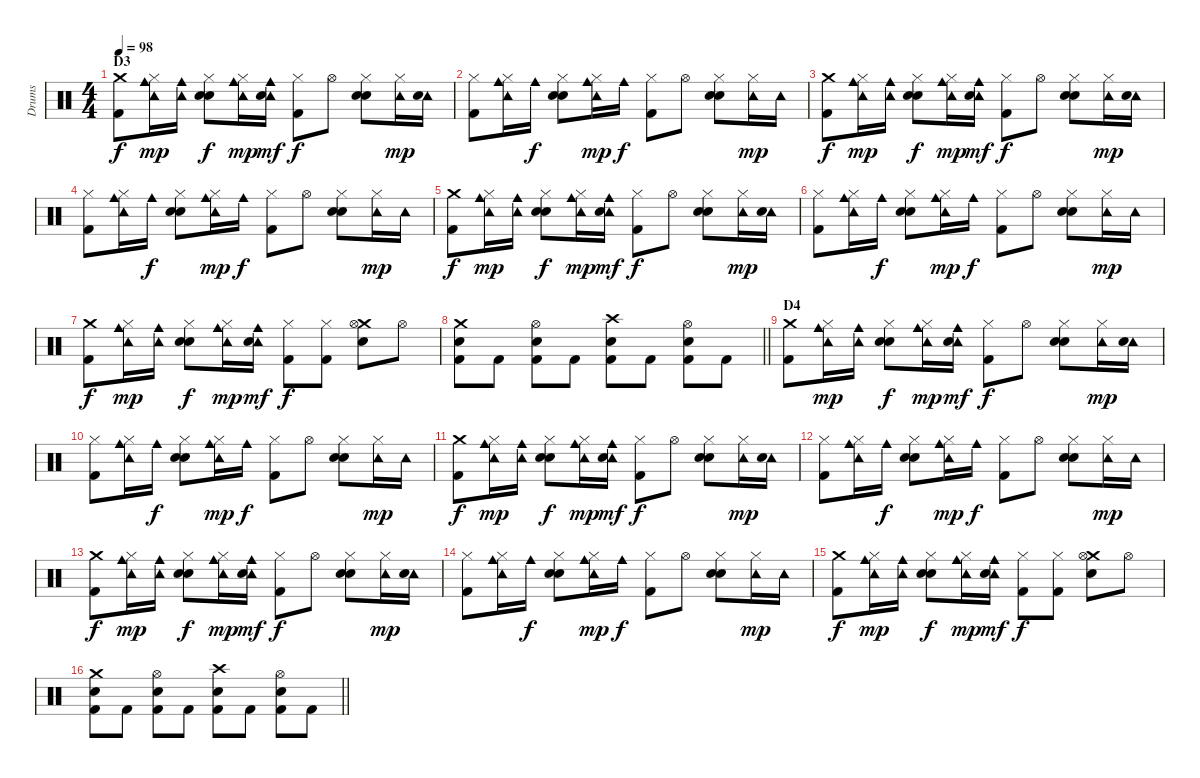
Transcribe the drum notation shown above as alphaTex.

\track ("Drums" "Drums") {instrument percussion}
\staff {score}
\articulation defaults
\ts (4 4)
\section ("" "D3")
\tempo 98
\clef neutral
\ks c
("Crash medium (hit)" "Kick (hit) 2").8{dy f} ("Cowbell medium (hit)" "Tambourine (hit)" "Hi-Hat (closed)").16{dy mp} ("Cowbell medium (hit)" "Tambourine (hit)").16 ("Hand Clap (hit)" "Hi-Hat (closed)" "Electric Snare (hit)").8{dy f} ("Cowbell medium (hit)" "Tambourine (hit)" "Hi-Hat (closed)").16{dy mp} ("Cowbell medium (hit)" "Tambourine (hit)" "Electric Snare (hit)").16{dy mf} ("Hi-Hat (closed)" "Kick (hit) 2").8{dy f} "Hi-Hat (open)".8 ("Hand Clap (hit)" "Hi-Hat (closed)" "Electric Snare (hit)").8 ("Tambourine (hit)" "Hi-Hat (closed)").16{dy mp} ("Tambourine (hit)" "Electric Snare (hit)").16 |
("Hi-Hat (closed)" "Kick (hit) 2").8 ("Cowbell medium (hit)" "Tambourine (hit)" "Hi-Hat (closed)").16 "Cowbell medium (hit)".16{dy f} ("Hand Clap (hit)" "Hi-Hat (closed)" "Electric Snare (hit)").8 ("Cowbell medium (hit)" "Tambourine (hit)" "Hi-Hat (closed)").16{dy mp} "Cowbell medium (hit)".16{dy f} ("Hi-Hat (closed)" "Kick (hit) 2").8 "Hi-Hat (open)".8 ("Hand Clap (hit)" "Hi-Hat (closed)" "Electric Snare (hit)").8 ("Tambourine (hit)" "Hi-Hat (closed)").16{dy mp} "Tambourine (hit)".16 |
("Crash medium (hit)" "Kick (hit) 2").8{dy f} ("Cowbell medium (hit)" "Tambourine (hit)" "Hi-Hat (closed)").16{dy mp} ("Cowbell medium (hit)" "Tambourine (hit)").16 ("Hand Clap (hit)" "Hi-Hat (closed)" "Electric Snare (hit)").8{dy f} ("Cowbell medium (hit)" "Tambourine (hit)" "Hi-Hat (closed)").16{dy mp} ("Cowbell medium (hit)" "Tambourine (hit)" "Electric Snare (hit)").16{dy mf} ("Hi-Hat (closed)" "Kick (hit) 2").8{dy f} "Hi-Hat (open)".8 ("Hand Clap (hit)" "Hi-Hat (closed)" "Electric Snare (hit)").8 ("Tambourine (hit)" "Hi-Hat (closed)").16{dy mp} ("Tambourine (hit)" "Electric Snare (hit)").16 |
("Hi-Hat (closed)" "Kick (hit) 2").8 ("Cowbell medium (hit)" "Tambourine (hit)" "Hi-Hat (closed)").16 "Cowbell medium (hit)".16{dy f} ("Hand Clap (hit)" "Hi-Hat (closed)" "Electric Snare (hit)").8 ("Cowbell medium (hit)" "Tambourine (hit)" "Hi-Hat (closed)").16{dy mp} "Cowbell medium (hit)".16{dy f} ("Hi-Hat (closed)" "Kick (hit) 2").8 "Hi-Hat (open)".8 ("Hand Clap (hit)" "Hi-Hat (closed)" "Electric Snare (hit)").8 ("Tambourine (hit)" "Hi-Hat (closed)").16{dy mp} "Tambourine (hit)".16 |
("Crash medium (hit)" "Kick (hit) 2").8{dy f} ("Cowbell medium (hit)" "Tambourine (hit)" "Hi-Hat (closed)").16{dy mp} ("Cowbell medium (hit)" "Tambourine (hit)").16 ("Hand Clap (hit)" "Hi-Hat (closed)" "Electric Snare (hit)").8{dy f} ("Cowbell medium (hit)" "Tambourine (hit)" "Hi-Hat (closed)").16{dy mp} ("Cowbell medium (hit)" "Tambourine (hit)" "Electric Snare (hit)").16{dy mf} ("Hi-Hat (closed)" "Kick (hit) 2").8{dy f} "Hi-Hat (open)".8 ("Hand Clap (hit)" "Hi-Hat (closed)" "Electric Snare (hit)").8 ("Tambourine (hit)" "Hi-Hat (closed)").16{dy mp} ("Tambourine (hit)" "Electric Snare (hit)").16 |
("Hi-Hat (closed)" "Kick (hit) 2").8 ("Cowbell medium (hit)" "Tambourine (hit)" "Hi-Hat (closed)").16 "Cowbell medium (hit)".16{dy f} ("Hand Clap (hit)" "Hi-Hat (closed)" "Electric Snare (hit)").8 ("Cowbell medium (hit)" "Tambourine (hit)" "Hi-Hat (closed)").16{dy mp} "Cowbell medium (hit)".16{dy f} ("Hi-Hat (closed)" "Kick (hit) 2").8 "Hi-Hat (open)".8 ("Hand Clap (hit)" "Hi-Hat (closed)" "Electric Snare (hit)").8 ("Tambourine (hit)" "Hi-Hat (closed)").16{dy mp} "Tambourine (hit)".16 |
("Crash medium (hit)" "Kick (hit) 2").8{dy f} ("Cowbell medium (hit)" "Tambourine (hit)" "Hi-Hat (closed)").16{dy mp} ("Cowbell medium (hit)" "Tambourine (hit)").16 ("Hand Clap (hit)" "Hi-Hat (closed)" "Electric Snare (hit)").8{dy f} ("Cowbell medium (hit)" "Tambourine (hit)" "Hi-Hat (closed)").16{dy mp} ("Cowbell medium (hit)" "Tambourine (hit)" "Electric Snare (hit)").16{dy mf} ("Hi-Hat (closed)" "Kick (hit) 2").8{dy f} ("Hi-Hat (closed)" "Kick (hit) 2").8 ("Crash medium (hit)" "Hi-Hat (open)" "Electric Snare (hit)").8 "Hi-Hat (open)".8 |
\barLineRight lightlight
("Crash medium (hit)" "Electric Snare (hit)" "Kick (hit) 2").8 "Kick (hit) 2".8 ("Hi-Hat (open)" "Electric Snare (hit)" "Kick (hit) 2").8 "Kick (hit) 2".8 ("Crash high (hit)" "Electric Snare (hit)" "Kick (hit) 2").8 "Kick (hit) 2".8 ("Hi-Hat (open)" "Electric Snare (hit)" "Kick (hit) 2").8 "Kick (hit) 2".8 |
\section ("" "D4")
("Crash medium (hit)" "Kick (hit) 2").8 ("Cowbell medium (hit)" "Tambourine (hit)" "Hi-Hat (closed)").16{dy mp} ("Cowbell medium (hit)" "Tambourine (hit)").16 ("Hand Clap (hit)" "Hi-Hat (closed)" "Electric Snare (hit)").8{dy f} ("Cowbell medium (hit)" "Tambourine (hit)" "Hi-Hat (closed)").16{dy mp} ("Cowbell medium (hit)" "Tambourine (hit)" "Electric Snare (hit)").16{dy mf} ("Hi-Hat (closed)" "Kick (hit) 2").8{dy f} "Hi-Hat (open)".8 ("Hand Clap (hit)" "Hi-Hat (closed)" "Electric Snare (hit)").8 ("Tambourine (hit)" "Hi-Hat (closed)").16{dy mp} ("Tambourine (hit)" "Electric Snare (hit)").16 |
("Hi-Hat (closed)" "Kick (hit) 2").8 ("Cowbell medium (hit)" "Tambourine (hit)" "Hi-Hat (closed)").16 "Cowbell medium (hit)".16{dy f} ("Hand Clap (hit)" "Hi-Hat (closed)" "Electric Snare (hit)").8 ("Cowbell medium (hit)" "Tambourine (hit)" "Hi-Hat (closed)").16{dy mp} "Cowbell medium (hit)".16{dy f} ("Hi-Hat (closed)" "Kick (hit) 2").8 "Hi-Hat (open)".8 ("Hand Clap (hit)" "Hi-Hat (closed)" "Electric Snare (hit)").8 ("Tambourine (hit)" "Hi-Hat (closed)").16{dy mp} "Tambourine (hit)".16 |
("Crash medium (hit)" "Kick (hit) 2").8{dy f} ("Cowbell medium (hit)" "Tambourine (hit)" "Hi-Hat (closed)").16{dy mp} ("Cowbell medium (hit)" "Tambourine (hit)").16 ("Hand Clap (hit)" "Hi-Hat (closed)" "Electric Snare (hit)").8{dy f} ("Cowbell medium (hit)" "Tambourine (hit)" "Hi-Hat (closed)").16{dy mp} ("Cowbell medium (hit)" "Tambourine (hit)" "Electric Snare (hit)").16{dy mf} ("Hi-Hat (closed)" "Kick (hit) 2").8{dy f} "Hi-Hat (open)".8 ("Hand Clap (hit)" "Hi-Hat (closed)" "Electric Snare (hit)").8 ("Tambourine (hit)" "Hi-Hat (closed)").16{dy mp} ("Tambourine (hit)" "Electric Snare (hit)").16 |
("Hi-Hat (closed)" "Kick (hit) 2").8 ("Cowbell medium (hit)" "Tambourine (hit)" "Hi-Hat (closed)").16 "Cowbell medium (hit)".16{dy f} ("Hand Clap (hit)" "Hi-Hat (closed)" "Electric Snare (hit)").8 ("Cowbell medium (hit)" "Tambourine (hit)" "Hi-Hat (closed)").16{dy mp} "Cowbell medium (hit)".16{dy f} ("Hi-Hat (closed)" "Kick (hit) 2").8 "Hi-Hat (open)".8 ("Hand Clap (hit)" "Hi-Hat (closed)" "Electric Snare (hit)").8 ("Tambourine (hit)" "Hi-Hat (closed)").16{dy mp} "Tambourine (hit)".16 |
("Crash medium (hit)" "Kick (hit) 2").8{dy f} ("Cowbell medium (hit)" "Tambourine (hit)" "Hi-Hat (closed)").16{dy mp} ("Cowbell medium (hit)" "Tambourine (hit)").16 ("Hand Clap (hit)" "Hi-Hat (closed)" "Electric Snare (hit)").8{dy f} ("Cowbell medium (hit)" "Tambourine (hit)" "Hi-Hat (closed)").16{dy mp} ("Cowbell medium (hit)" "Tambourine (hit)" "Electric Snare (hit)").16{dy mf} ("Hi-Hat (closed)" "Kick (hit) 2").8{dy f} "Hi-Hat (open)".8 ("Hand Clap (hit)" "Hi-Hat (closed)" "Electric Snare (hit)").8 ("Tambourine (hit)" "Hi-Hat (closed)").16{dy mp} ("Tambourine (hit)" "Electric Snare (hit)").16 |
("Hi-Hat (closed)" "Kick (hit) 2").8 ("Cowbell medium (hit)" "Tambourine (hit)" "Hi-Hat (closed)").16 "Cowbell medium (hit)".16{dy f} ("Hand Clap (hit)" "Hi-Hat (closed)" "Electric Snare (hit)").8 ("Cowbell medium (hit)" "Tambourine (hit)" "Hi-Hat (closed)").16{dy mp} "Cowbell medium (hit)".16{dy f} ("Hi-Hat (closed)" "Kick (hit) 2").8 "Hi-Hat (open)".8 ("Hand Clap (hit)" "Hi-Hat (closed)" "Electric Snare (hit)").8 ("Tambourine (hit)" "Hi-Hat (closed)").16{dy mp} "Tambourine (hit)".16 |
("Crash medium (hit)" "Kick (hit) 2").8{dy f} ("Cowbell medium (hit)" "Tambourine (hit)" "Hi-Hat (closed)").16{dy mp} ("Cowbell medium (hit)" "Tambourine (hit)").16 ("Hand Clap (hit)" "Hi-Hat (closed)" "Electric Snare (hit)").8{dy f} ("Cowbell medium (hit)" "Tambourine (hit)" "Hi-Hat (closed)").16{dy mp} ("Cowbell medium (hit)" "Tambourine (hit)" "Electric Snare (hit)").16{dy mf} ("Hi-Hat (closed)" "Kick (hit) 2").8{dy f} ("Hi-Hat (closed)" "Kick (hit) 2").8 ("Crash medium (hit)" "Hi-Hat (open)" "Electric Snare (hit)").8 "Hi-Hat (open)".8 |
\barLineRight lightlight
("Crash medium (hit)" "Electric Snare (hit)" "Kick (hit) 2").8 "Kick (hit) 2".8 ("Hi-Hat (open)" "Electric Snare (hit)" "Kick (hit) 2").8 "Kick (hit) 2".8 ("Crash high (hit)" "Electric Snare (hit)" "Kick (hit) 2").8 "Kick (hit) 2".8 ("Hi-Hat (open)" "Electric Snare (hit)" "Kick (hit) 2").8 "Kick (hit) 2".8
